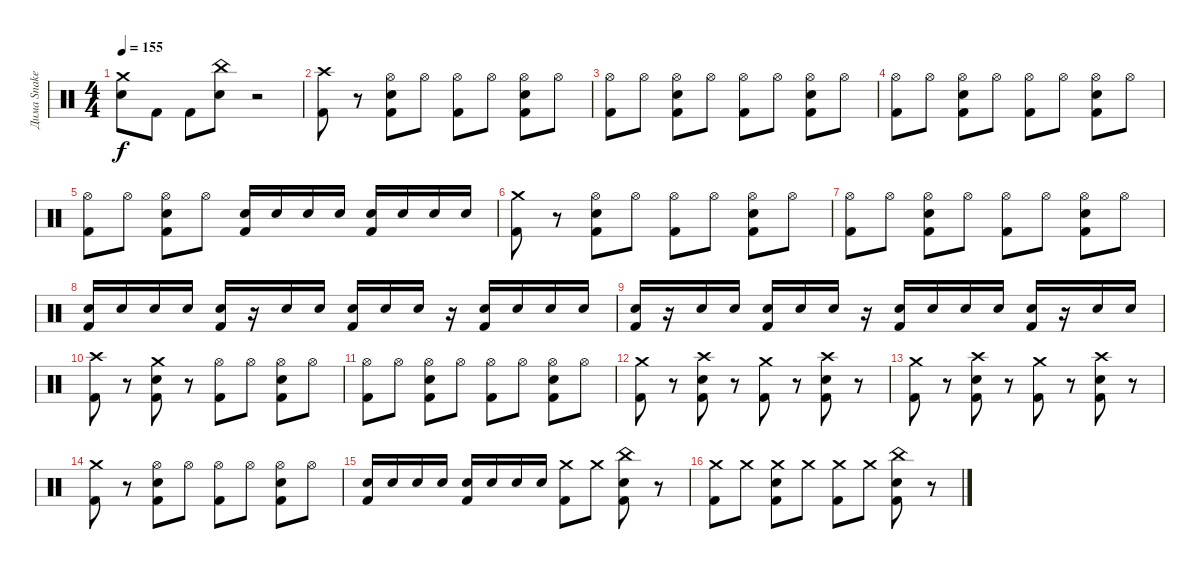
\track ("Дима Snake Хакимов" "Дима Snake") {instrument percussion}
\staff {score}
\articulation defaults
\ts (4 4)
\tempo 155
\clef neutral
\ks c
("Crash medium (hit)" "Snare (hit) 2").8{dy f} "Kick (hit) 2".8 "Kick (hit) 2".8 ("China (hit)" "Snare (hit) 2").8 r.2 |
("Crash high (hit)" "Kick (hit) 2").8 r.8 ("Hi-Hat (open)" "Snare (hit) 2" "Kick (hit) 2").8 "Hi-Hat (open)".8 ("Hi-Hat (open)" "Kick (hit) 2").8 "Hi-Hat (open)".8 ("Hi-Hat (open)" "Snare (hit) 2" "Kick (hit) 2").8 "Hi-Hat (open)".8 |
("Hi-Hat (open)" "Kick (hit) 2").8 "Hi-Hat (open)".8 ("Hi-Hat (open)" "Snare (hit) 2" "Kick (hit) 2").8 "Hi-Hat (open)".8 ("Hi-Hat (open)" "Kick (hit) 2").8 "Hi-Hat (open)".8 ("Hi-Hat (open)" "Snare (hit) 2" "Kick (hit) 2").8 "Hi-Hat (open)".8 |
("Hi-Hat (open)" "Kick (hit) 2").8 "Hi-Hat (open)".8 ("Hi-Hat (open)" "Snare (hit) 2" "Kick (hit) 2").8 "Hi-Hat (open)".8 ("Hi-Hat (open)" "Kick (hit) 2").8 "Hi-Hat (open)".8 ("Hi-Hat (open)" "Snare (hit) 2" "Kick (hit) 2").8 "Hi-Hat (open)".8 |
("Hi-Hat (open)" "Kick (hit) 2").8 "Hi-Hat (open)".8 ("Hi-Hat (open)" "Snare (hit) 2" "Kick (hit) 2").8 "Hi-Hat (open)".8 ("Snare (hit) 2" "Kick (hit) 2").16 "Snare (hit) 2".16 "Snare (hit) 2".16 "Snare (hit) 2".16 ("Snare (hit) 2" "Kick (hit) 2").16 "Snare (hit) 2".16 "Snare (hit) 2".16 "Snare (hit) 2".16 |
("Crash medium (hit)" "Kick (hit) 2").8 r.8 ("Hi-Hat (open)" "Snare (hit) 2" "Kick (hit) 2").8 "Hi-Hat (open)".8 ("Hi-Hat (open)" "Kick (hit) 2").8 "Hi-Hat (open)".8 ("Hi-Hat (open)" "Snare (hit) 2" "Kick (hit) 2").8 "Hi-Hat (open)".8 |
("Hi-Hat (open)" "Kick (hit) 2").8 "Hi-Hat (open)".8 ("Hi-Hat (open)" "Snare (hit) 2" "Kick (hit) 2").8 "Hi-Hat (open)".8 ("Hi-Hat (open)" "Kick (hit) 2").8 "Hi-Hat (open)".8 ("Hi-Hat (open)" "Snare (hit) 2" "Kick (hit) 2").8 "Hi-Hat (open)".8 |
("Snare (hit) 2" "Kick (hit) 2").16 "Snare (hit) 2".16 "Snare (hit) 2".16 "Snare (hit) 2".16 ("Snare (hit) 2" "Kick (hit) 2").16 r.16 "Snare (hit) 2".16 "Snare (hit) 2".16 ("Snare (hit) 2" "Kick (hit) 2").16 "Snare (hit) 2".16 "Snare (hit) 2".16 r.16 ("Snare (hit) 2" "Kick (hit) 2").16 "Snare (hit) 2".16 "Snare (hit) 2".16 "Snare (hit) 2".16 |
("Snare (hit) 2" "Kick (hit) 2").16 r.16 "Snare (hit) 2".16 "Snare (hit) 2".16 ("Snare (hit) 2" "Kick (hit) 2").16 "Snare (hit) 2".16 "Snare (hit) 2".16 r.16 ("Snare (hit) 2" "Kick (hit) 2").16 "Snare (hit) 2".16 "Snare (hit) 2".16 "Snare (hit) 2".16 ("Snare (hit) 2" "Kick (hit) 2").16 r.16 "Snare (hit) 2".16 "Snare (hit) 2".16 |
("Crash high (hit)" "Kick (hit) 2").8 r.8 ("Crash medium (hit)" "Snare (hit) 2" "Kick (hit) 2").8 r.8 ("Hi-Hat (open)" "Kick (hit) 2").8 "Hi-Hat (open)".8 ("Hi-Hat (open)" "Snare (hit) 2" "Kick (hit) 2").8 "Hi-Hat (open)".8 |
("Hi-Hat (open)" "Kick (hit) 2").8 "Hi-Hat (open)".8 ("Hi-Hat (open)" "Snare (hit) 2" "Kick (hit) 2").8 "Hi-Hat (open)".8 ("Hi-Hat (open)" "Kick (hit) 2").8 "Hi-Hat (open)".8 ("Hi-Hat (open)" "Snare (hit) 2" "Kick (hit) 2").8 "Hi-Hat (open)".8 |
("Crash medium (hit)" "Kick (hit) 2").8 r.8 ("Crash high (hit)" "Snare (hit) 2" "Kick (hit) 2").8 r.8 ("Crash medium (hit)" "Kick (hit) 2").8 r.8 ("Crash high (hit)" "Snare (hit) 2" "Kick (hit) 2").8 r.8 |
("Crash medium (hit)" "Kick (hit) 2").8 r.8 ("Crash high (hit)" "Snare (hit) 2" "Kick (hit) 2").8 r.8 ("Crash medium (hit)" "Kick (hit) 2").8 r.8 ("Crash high (hit)" "Snare (hit) 2" "Kick (hit) 2").8 r.8 |
("Crash medium (hit)" "Kick (hit) 2").8 r.8 ("Hi-Hat (open)" "Snare (hit) 2" "Kick (hit) 2").8 "Hi-Hat (open)".8 ("Hi-Hat (open)" "Kick (hit) 2").8 "Hi-Hat (open)".8 ("Hi-Hat (open)" "Snare (hit) 2" "Kick (hit) 2").8 "Hi-Hat (open)".8 |
("Snare (hit) 2" "Kick (hit) 2").16 "Snare (hit) 2".16 "Snare (hit) 2".16 "Snare (hit) 2".16 ("Snare (hit) 2" "Kick (hit) 2").16 "Snare (hit) 2".16 "Snare (hit) 2".16 "Snare (hit) 2".16 ("Crash medium (hit)" "Kick (hit) 2").8 "Crash medium (hit)".8 ("China (hit)" "Snare (hit) 2" "Kick (hit) 2").8 r.8 |
("Crash medium (hit)" "Kick (hit) 2").8 "Crash medium (hit)".8 ("Crash medium (hit)" "Snare (hit) 2" "Kick (hit) 2").8 "Crash medium (hit)".8 ("Crash medium (hit)" "Kick (hit) 2").8 "Crash medium (hit)".8 ("China (hit)" "Snare (hit) 2" "Kick (hit) 2").8 r.8
